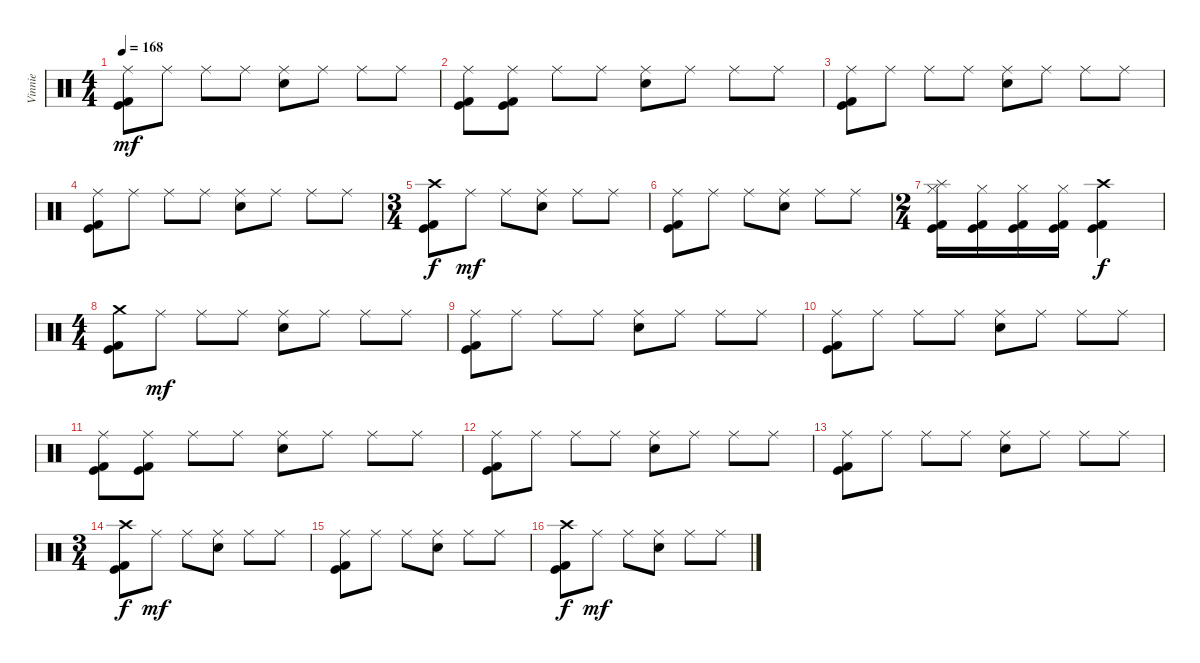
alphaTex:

\track ("Vinnie" "Vinnie") {instrument percussion}
\staff {score}
\articulation defaults
\ts (4 4)
\tempo 168
\clef neutral
\ks c
("Ride (middle)" "Kick (hit)" "Kick (hit) 2").8{dy mf} "Ride (middle)".8 "Ride (middle)".8 "Ride (middle)".8 ("Ride (middle)" "Electric Snare (hit)").8 "Ride (middle)".8 "Ride (middle)".8 "Ride (middle)".8 |
("Ride (middle)" "Kick (hit)" "Kick (hit) 2").8 ("Ride (middle)" "Kick (hit)" "Kick (hit) 2").8 "Ride (middle)".8 "Ride (middle)".8 ("Ride (middle)" "Electric Snare (hit)").8 "Ride (middle)".8 "Ride (middle)".8 "Ride (middle)".8 |
("Ride (middle)" "Kick (hit)" "Kick (hit) 2").8 "Ride (middle)".8 "Ride (middle)".8 "Ride (middle)".8 ("Ride (middle)" "Electric Snare (hit)").8 "Ride (middle)".8 "Ride (middle)".8 "Ride (middle)".8 |
("Ride (middle)" "Kick (hit)" "Kick (hit) 2").8 "Ride (middle)".8 "Ride (middle)".8 "Ride (middle)".8 ("Ride (middle)" "Electric Snare (hit)").8 "Ride (middle)".8 "Ride (middle)".8 "Ride (middle)".8 |
\ts (3 4)
("Crash high (hit)" "Kick (hit)" "Kick (hit) 2").8{dy f} "Ride (middle)".8{dy mf} "Ride (middle)".8 ("Ride (middle)" "Electric Snare (hit)").8 "Ride (middle)".8 "Ride (middle)".8 |
("Ride (middle)" "Kick (hit)" "Kick (hit) 2").8 "Ride (middle)".8 "Ride (middle)".8 ("Ride (middle)" "Electric Snare (hit)").8 "Ride (middle)".8 "Ride (middle)".8 |
\ts (2 4)
("Hi-Hat (closed)" "Splash (hit)" "Kick (hit)" "Kick (hit) 2").16 ("Hi-Hat (closed)" "Kick (hit)" "Kick (hit) 2").16 ("Hi-Hat (closed)" "Kick (hit)" "Kick (hit) 2").16 ("Hi-Hat (closed)" "Kick (hit)" "Kick (hit) 2").16 ("Crash high (hit)" "Kick (hit)" "Kick (hit) 2").4{dy f} |
\ts (4 4)
("Crash medium (hit)" "Kick (hit)" "Kick (hit) 2").8 "Ride (middle)".8{dy mf} "Ride (middle)".8 "Ride (middle)".8 ("Ride (middle)" "Electric Snare (hit)").8 "Ride (middle)".8 "Ride (middle)".8 "Ride (middle)".8 |
("Ride (middle)" "Kick (hit)" "Kick (hit) 2").8 "Ride (middle)".8 "Ride (middle)".8 "Ride (middle)".8 ("Ride (middle)" "Electric Snare (hit)").8 "Ride (middle)".8 "Ride (middle)".8 "Ride (middle)".8 |
("Ride (middle)" "Kick (hit)" "Kick (hit) 2").8 "Ride (middle)".8 "Ride (middle)".8 "Ride (middle)".8 ("Ride (middle)" "Electric Snare (hit)").8 "Ride (middle)".8 "Ride (middle)".8 "Ride (middle)".8 |
("Ride (middle)" "Kick (hit)" "Kick (hit) 2").8 ("Ride (middle)" "Kick (hit)" "Kick (hit) 2").8 "Ride (middle)".8 "Ride (middle)".8 ("Ride (middle)" "Electric Snare (hit)").8 "Ride (middle)".8 "Ride (middle)".8 "Ride (middle)".8 |
("Ride (middle)" "Kick (hit)" "Kick (hit) 2").8 "Ride (middle)".8 "Ride (middle)".8 "Ride (middle)".8 ("Ride (middle)" "Electric Snare (hit)").8 "Ride (middle)".8 "Ride (middle)".8 "Ride (middle)".8 |
("Ride (middle)" "Kick (hit)" "Kick (hit) 2").8 "Ride (middle)".8 "Ride (middle)".8 "Ride (middle)".8 ("Ride (middle)" "Electric Snare (hit)").8 "Ride (middle)".8 "Ride (middle)".8 "Ride (middle)".8 |
\ts (3 4)
("Crash high (hit)" "Kick (hit)" "Kick (hit) 2").8{dy f} "Ride (middle)".8{dy mf} "Ride (middle)".8 ("Ride (middle)" "Electric Snare (hit)").8 "Ride (middle)".8 "Ride (middle)".8 |
("Ride (middle)" "Kick (hit)" "Kick (hit) 2").8 "Ride (middle)".8 "Ride (middle)".8 ("Ride (middle)" "Electric Snare (hit)").8 "Ride (middle)".8 "Ride (middle)".8 |
("Crash high (hit)" "Kick (hit)" "Kick (hit) 2").8{dy f} "Ride (middle)".8{dy mf} "Ride (middle)".8 ("Ride (middle)" "Electric Snare (hit)").8 "Ride (middle)".8 "Ride (middle)".8
